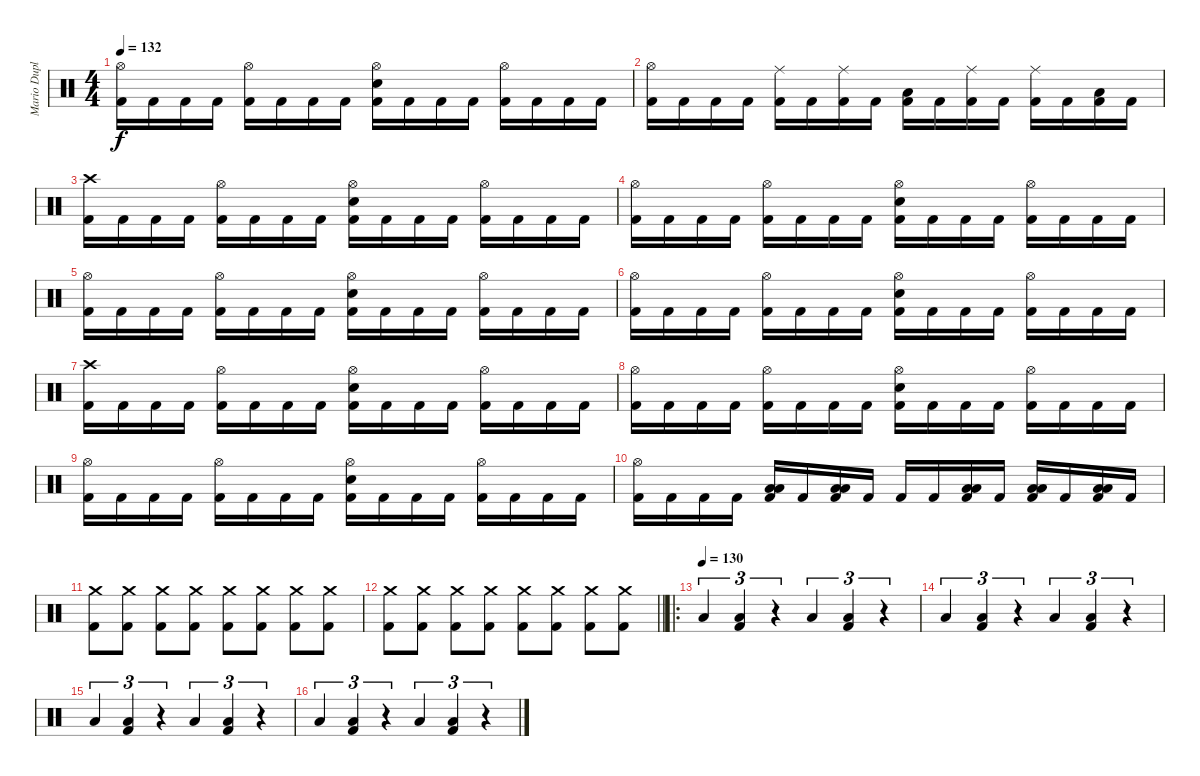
\track ("Mario Duplantier" "Mario Dupl") {instrument percussion}
\staff {score}
\articulation defaults
\ts (4 4)
\tempo 132
\clef neutral
\ks c
("Hi-Hat (open)" "Kick (hit) 2").16{dy f} "Kick (hit) 2".16 "Kick (hit) 2".16 "Kick (hit) 2".16 ("Hi-Hat (open)" "Kick (hit) 2").16 "Kick (hit) 2".16 "Kick (hit) 2".16 "Kick (hit) 2".16 ("Hi-Hat (open)" "Snare (hit) 2" "Kick (hit) 2").16 "Kick (hit) 2".16 "Kick (hit) 2".16 "Kick (hit) 2".16 ("Hi-Hat (open)" "Kick (hit) 2").16 "Kick (hit) 2".16 "Kick (hit) 2".16 "Kick (hit) 2".16 |
("Hi-Hat (open)" "Kick (hit) 2").16 "Kick (hit) 2".16 "Kick (hit) 2".16 "Kick (hit) 2".16 ("Ride (middle)" "Kick (hit) 2").16 "Kick (hit) 2".16 ("Ride (middle)" "Kick (hit) 2").16 "Kick (hit) 2".16 ("Low Floor Tom (hit)" "Kick (hit) 2").16 "Kick (hit) 2".16 ("Ride (middle)" "Kick (hit) 2").16 "Kick (hit) 2".16 ("Ride (middle)" "Kick (hit) 2").16 "Kick (hit) 2".16 ("Low Floor Tom (hit)" "Kick (hit) 2").16 "Kick (hit) 2".16 |
("Crash high (hit)" "Kick (hit) 2").16 "Kick (hit) 2".16 "Kick (hit) 2".16 "Kick (hit) 2".16 ("Hi-Hat (open)" "Kick (hit) 2").16 "Kick (hit) 2".16 "Kick (hit) 2".16 "Kick (hit) 2".16 ("Hi-Hat (open)" "Snare (hit) 2" "Kick (hit) 2").16 "Kick (hit) 2".16 "Kick (hit) 2".16 "Kick (hit) 2".16 ("Hi-Hat (open)" "Kick (hit) 2").16 "Kick (hit) 2".16 "Kick (hit) 2".16 "Kick (hit) 2".16 |
("Hi-Hat (open)" "Kick (hit) 2").16 "Kick (hit) 2".16 "Kick (hit) 2".16 "Kick (hit) 2".16 ("Hi-Hat (open)" "Kick (hit) 2").16 "Kick (hit) 2".16 "Kick (hit) 2".16 "Kick (hit) 2".16 ("Hi-Hat (open)" "Electric Snare (hit)" "Kick (hit) 2").16 "Kick (hit) 2".16 "Kick (hit) 2".16 "Kick (hit) 2".16 ("Hi-Hat (open)" "Kick (hit) 2").16 "Kick (hit) 2".16 "Kick (hit) 2".16 "Kick (hit) 2".16 |
("Hi-Hat (open)" "Kick (hit) 2").16 "Kick (hit) 2".16 "Kick (hit) 2".16 "Kick (hit) 2".16 ("Hi-Hat (open)" "Kick (hit) 2").16 "Kick (hit) 2".16 "Kick (hit) 2".16 "Kick (hit) 2".16 ("Hi-Hat (open)" "Snare (hit) 2" "Kick (hit) 2").16 "Kick (hit) 2".16 "Kick (hit) 2".16 "Kick (hit) 2".16 ("Hi-Hat (open)" "Kick (hit) 2").16 "Kick (hit) 2".16 "Kick (hit) 2".16 "Kick (hit) 2".16 |
("Hi-Hat (open)" "Kick (hit) 2").16 "Kick (hit) 2".16 "Kick (hit) 2".16 "Kick (hit) 2".16 ("Hi-Hat (open)" "Kick (hit) 2").16 "Kick (hit) 2".16 "Kick (hit) 2".16 "Kick (hit) 2".16 ("Hi-Hat (open)" "Electric Snare (hit)" "Kick (hit) 2").16 "Kick (hit) 2".16 "Kick (hit) 2".16 "Kick (hit) 2".16 ("Hi-Hat (open)" "Kick (hit) 2").16 "Kick (hit) 2".16 "Kick (hit) 2".16 "Kick (hit) 2".16 |
("Crash high (hit)" "Kick (hit) 2").16 "Kick (hit) 2".16 "Kick (hit) 2".16 "Kick (hit) 2".16 ("Hi-Hat (open)" "Kick (hit) 2").16 "Kick (hit) 2".16 "Kick (hit) 2".16 "Kick (hit) 2".16 ("Hi-Hat (open)" "Snare (hit) 2" "Kick (hit) 2").16 "Kick (hit) 2".16 "Kick (hit) 2".16 "Kick (hit) 2".16 ("Hi-Hat (open)" "Kick (hit) 2").16 "Kick (hit) 2".16 "Kick (hit) 2".16 "Kick (hit) 2".16 |
("Hi-Hat (open)" "Kick (hit) 2").16 "Kick (hit) 2".16 "Kick (hit) 2".16 "Kick (hit) 2".16 ("Hi-Hat (open)" "Kick (hit) 2").16 "Kick (hit) 2".16 "Kick (hit) 2".16 "Kick (hit) 2".16 ("Hi-Hat (open)" "Electric Snare (hit)" "Kick (hit) 2").16 "Kick (hit) 2".16 "Kick (hit) 2".16 "Kick (hit) 2".16 ("Hi-Hat (open)" "Kick (hit) 2").16 "Kick (hit) 2".16 "Kick (hit) 2".16 "Kick (hit) 2".16 |
("Hi-Hat (open)" "Kick (hit) 2").16 "Kick (hit) 2".16 "Kick (hit) 2".16 "Kick (hit) 2".16 ("Hi-Hat (open)" "Kick (hit) 2").16 "Kick (hit) 2".16 "Kick (hit) 2".16 "Kick (hit) 2".16 ("Hi-Hat (open)" "Snare (hit) 2" "Kick (hit) 2").16 "Kick (hit) 2".16 "Kick (hit) 2".16 "Kick (hit) 2".16 ("Hi-Hat (open)" "Kick (hit) 2").16 "Kick (hit) 2".16 "Kick (hit) 2".16 "Kick (hit) 2".16 |
("Hi-Hat (open)" "Kick (hit) 2").16 "Kick (hit) 2".16 "Kick (hit) 2".16 "Kick (hit) 2".16 ("Low Floor Tom (hit)" "Low Floor Tom (hit)" "Kick (hit) 2").16 "Kick (hit) 2".16 ("Low Floor Tom (hit)" "Low Floor Tom (hit)" "Kick (hit) 2").16 "Kick (hit) 2".16 "Kick (hit) 2".16 "Kick (hit) 2".16 ("Low Floor Tom (hit)" "Low Floor Tom (hit)" "Kick (hit) 2").16 "Kick (hit) 2".16 ("Low Floor Tom (hit)" "Low Floor Tom (hit)" "Kick (hit) 2").16 "Kick (hit) 2".16 ("Low Floor Tom (hit)" "Low Floor Tom (hit)" "Kick (hit) 2").16 "Kick (hit) 2".16 |
("Crash medium (hit)" "Kick (hit) 2").8 ("Crash medium (hit)" "Kick (hit) 2").8 ("Crash medium (hit)" "Kick (hit) 2").8 ("Crash medium (hit)" "Kick (hit) 2").8 ("Crash medium (hit)" "Kick (hit) 2").8 ("Crash medium (hit)" "Kick (hit) 2").8 ("Crash medium (hit)" "Kick (hit) 2").8 ("Crash medium (hit)" "Kick (hit) 2").8 |
\barLineRight lightlight
("Crash medium (hit)" "Kick (hit) 2").8 ("Crash medium (hit)" "Kick (hit) 2").8 ("Crash medium (hit)" "Kick (hit) 2").8 ("Crash medium (hit)" "Kick (hit) 2").8 ("Crash medium (hit)" "Kick (hit) 2").8 ("Crash medium (hit)" "Kick (hit) 2").8 ("Crash medium (hit)" "Kick (hit) 2").8 ("Crash medium (hit)" "Kick (hit) 2").8 |
\ro
\section ("" "")
\tempo (130)
"Low Floor Tom (hit)".4{tu (3 2)} ("Low Floor Tom (hit)" "Kick (hit) 2").4{tu (3 2)} r.4{tu (3 2)} "Low Floor Tom (hit)".4{tu (3 2)} ("Low Floor Tom (hit)" "Kick (hit) 2").4{tu (3 2)} r.4{tu (3 2)} |
"Low Floor Tom (hit)".4{tu (3 2)} ("Low Floor Tom (hit)" "Kick (hit) 2").4{tu (3 2)} r.4{tu (3 2)} "Low Floor Tom (hit)".4{tu (3 2)} ("Low Floor Tom (hit)" "Kick (hit) 2").4{tu (3 2)} r.4{tu (3 2)} |
"Low Floor Tom (hit)".4{tu (3 2)} ("Low Floor Tom (hit)" "Kick (hit) 2").4{tu (3 2)} r.4{tu (3 2)} "Low Floor Tom (hit)".4{tu (3 2)} ("Low Floor Tom (hit)" "Kick (hit) 2").4{tu (3 2)} r.4{tu (3 2)} |
"Low Floor Tom (hit)".4{tu (3 2)} ("Low Floor Tom (hit)" "Kick (hit) 2").4{tu (3 2)} r.4{tu (3 2)} "Low Floor Tom (hit)".4{tu (3 2)} ("Low Floor Tom (hit)" "Kick (hit) 2").4{tu (3 2)} r.4{tu (3 2)}
